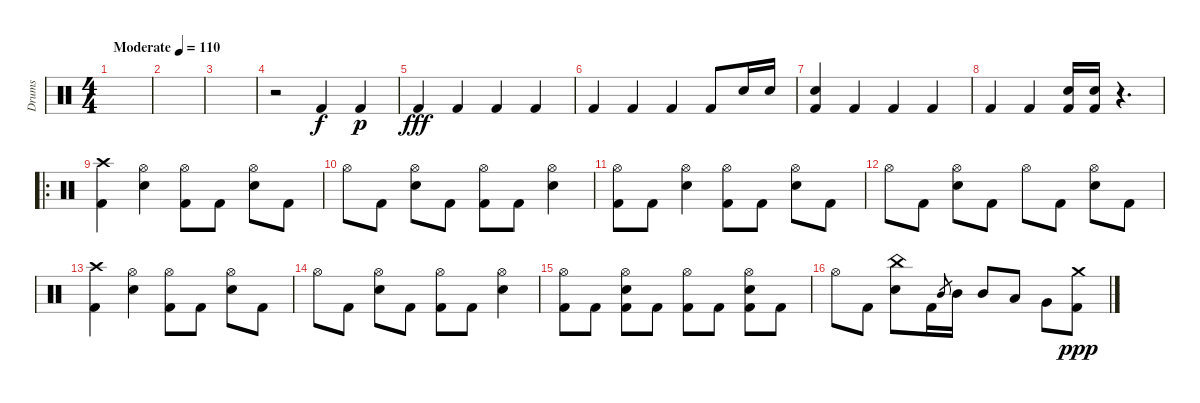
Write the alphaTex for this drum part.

\track ("Drums" "Drums") {instrument percussion}
\staff {score}
\articulation defaults
\ts (4 4)
\tempo (110 "Moderate")
\clef neutral
\ks c
|
|
|
r.2 "Kick (hit) 2".4 "Kick (hit) 2".4{dy p} |
"Kick (hit) 2".4{dy fff} "Kick (hit) 2".4 "Kick (hit) 2".4 "Kick (hit) 2".4 |
"Kick (hit) 2".4 "Kick (hit) 2".4 "Kick (hit) 2".4 "Kick (hit) 2".8 "Snare (hit) 2".16 "Snare (hit) 2".16 |
("Snare (hit) 2" "Kick (hit) 2").4 "Kick (hit) 2".4 "Kick (hit) 2".4 "Kick (hit) 2".4 |
"Kick (hit) 2".4 "Kick (hit) 2".4 ("Snare (hit) 2" "Kick (hit) 2").16 ("Snare (hit) 2" "Kick (hit) 2").16 r.4{d} |
\ro
("Crash high (hit)" "Kick (hit) 2").4 ("Hi-Hat (open)" "Snare (hit) 2").4 ("Hi-Hat (open)" "Kick (hit) 2").8 "Kick (hit) 2".8 ("Hi-Hat (open)" "Snare (hit) 2").8 "Kick (hit) 2".8 |
"Hi-Hat (open)".8 "Kick (hit) 2".8 ("Hi-Hat (open)" "Snare (hit) 2").8 "Kick (hit) 2".8 ("Hi-Hat (open)" "Kick (hit) 2").8 "Kick (hit) 2".8 ("Hi-Hat (open)" "Snare (hit) 2").4 |
("Hi-Hat (open)" "Kick (hit) 2").8 "Kick (hit) 2".8 ("Hi-Hat (open)" "Snare (hit) 2").4 ("Hi-Hat (open)" "Kick (hit) 2").8 "Kick (hit) 2".8 ("Hi-Hat (open)" "Snare (hit) 2").8 "Kick (hit) 2".8 |
"Hi-Hat (open)".8 "Kick (hit) 2".8 ("Hi-Hat (open)" "Snare (hit) 2").8 "Kick (hit) 2".8 "Hi-Hat (open)".8 "Kick (hit) 2".8 ("Hi-Hat (open)" "Snare (hit) 2").8 "Kick (hit) 2".8 |
("Crash high (hit)" "Kick (hit) 2").4 ("Hi-Hat (open)" "Snare (hit) 2").4 ("Hi-Hat (open)" "Kick (hit) 2").8 "Kick (hit) 2".8 ("Hi-Hat (open)" "Snare (hit) 2").8 "Kick (hit) 2".8 |
"Hi-Hat (open)".8 "Kick (hit) 2".8 ("Hi-Hat (open)" "Snare (hit) 2").8 "Kick (hit) 2".8 ("Hi-Hat (open)" "Kick (hit) 2").8 "Kick (hit) 2".8 ("Hi-Hat (open)" "Snare (hit) 2").4 |
("Hi-Hat (open)" "Kick (hit) 2").8 "Kick (hit) 2".8 ("Hi-Hat (open)" "Snare (hit) 2" "Kick (hit) 2").8 "Kick (hit) 2".8 ("Hi-Hat (open)" "Kick (hit) 2").8 "Kick (hit) 2".8 ("Hi-Hat (open)" "Snare (hit) 2" "Kick (hit) 2").8 "Kick (hit) 2".8 |
"Hi-Hat (open)".8 "Kick (hit) 2".8 ("China (hit)" "Snare (hit) 2").8 "Kick (hit) 2".16 "Mid Tom (hit)".8{gr} "Mid Tom (hit)".16 "Mid Tom (hit)".8 "Low Tom (hit)".8 "Very Low Tom (hit)".8 ("Crash medium (hit)" "Kick (hit) 2").8{dy ppp}
